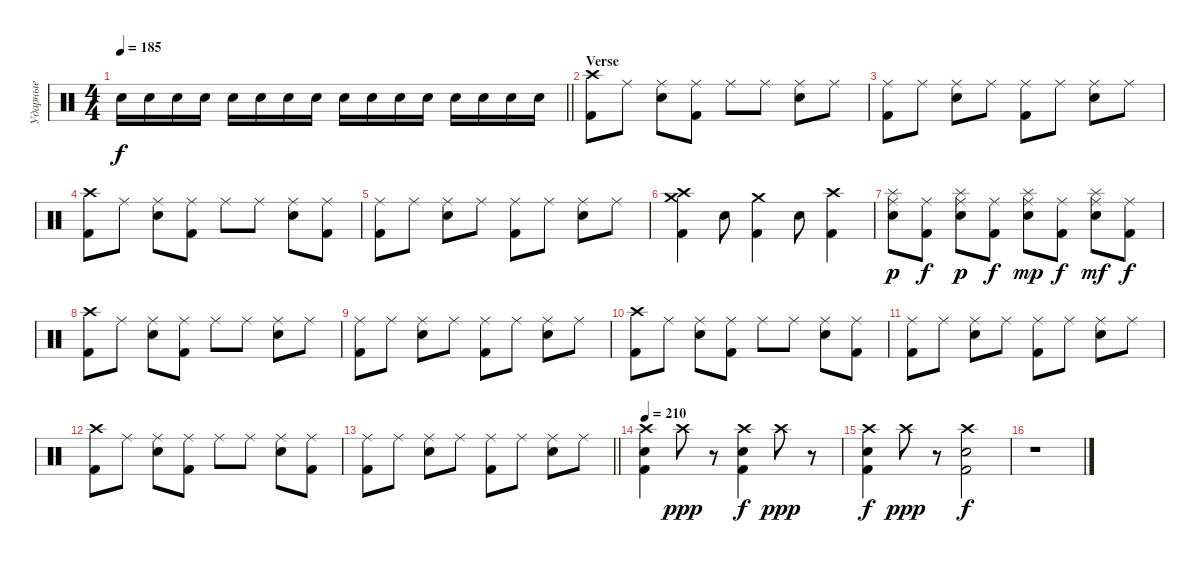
\track ("Ударные" "Ударные") {instrument percussion}
\staff {score}
\articulation defaults
\ts (4 4)
\tempo 185
\clef neutral
\barLineRight lightlight
\ks c "Electric Snare (hit)".16{dy f} "Electric Snare (hit)".16 "Electric Snare (hit)".16 "Electric Snare (hit)".16 "Electric Snare (hit)".16 "Electric Snare (hit)".16 "Electric Snare (hit)".16 "Electric Snare (hit)".16 "Electric Snare (hit)".16 "Electric Snare (hit)".16 "Electric Snare (hit)".16 "Electric Snare (hit)".16 "Electric Snare (hit)".16 "Electric Snare (hit)".16 "Electric Snare (hit)".16 "Electric Snare (hit)".16
|
\section ("" "Verse")
("Kick (hit) 2" "Crash high (hit)").8 "Ride (middle)".8 ("Ride (middle)" "Electric Snare (hit)").8 ("Ride (middle)" "Kick (hit) 2").8 "Ride (middle)".8 "Ride (middle)".8 ("Ride (middle)" "Electric Snare (hit)").8 "Ride (middle)".8 |
("Ride (middle)" "Kick (hit) 2").8 "Ride (middle)".8 ("Ride (middle)" "Electric Snare (hit)").8 "Ride (middle)".8 ("Ride (middle)" "Kick (hit) 2").8 "Ride (middle)".8 ("Ride (middle)" "Electric Snare (hit)").8 "Ride (middle)".8 |
("Kick (hit) 2" "Crash high (hit)").8 "Ride (middle)".8 ("Ride (middle)" "Electric Snare (hit)").8 ("Ride (middle)" "Kick (hit) 2").8 "Ride (middle)".8 "Ride (middle)".8 ("Ride (middle)" "Electric Snare (hit)").8 ("Ride (middle)" "Kick (hit) 2").8 |
("Ride (middle)" "Kick (hit) 2").8 "Ride (middle)".8 ("Ride (middle)" "Electric Snare (hit)").8 "Ride (middle)".8 ("Ride (middle)" "Kick (hit) 2").8 "Ride (middle)".8 ("Ride (middle)" "Electric Snare (hit)").8 "Ride (middle)".8 |
("Crash high (hit)" "Crash medium (hit)" "Kick (hit) 2").4 "Electric Snare (hit)".8 ("Crash medium (hit)" "Kick (hit) 2").4 "Electric Snare (hit)".8 ("Crash high (hit)" "Kick (hit) 2").4 |
("Electric Snare (hit)" "Ride (middle)" "Splash (hit)").8{dy p} ("Kick (hit) 2" "Ride (middle)").8{dy f} ("Electric Snare (hit)" "Ride (middle)" "Splash (hit)").8{dy p} ("Kick (hit) 2" "Ride (middle)").8{dy f} ("Electric Snare (hit)" "Ride (middle)" "Splash (hit)").8{dy mp} ("Kick (hit) 2" "Ride (middle)").8{dy f} ("Electric Snare (hit)" "Ride (middle)" "Splash (hit)").8{dy mf} ("Kick (hit) 2" "Ride (middle)").8{dy f} |
("Kick (hit) 2" "Crash high (hit)").8 "Ride (middle)".8 ("Ride (middle)" "Electric Snare (hit)").8 ("Ride (middle)" "Kick (hit) 2").8 "Ride (middle)".8 "Ride (middle)".8 ("Ride (middle)" "Electric Snare (hit)").8 "Ride (middle)".8 |
("Ride (middle)" "Kick (hit) 2").8 "Ride (middle)".8 ("Ride (middle)" "Electric Snare (hit)").8 "Ride (middle)".8 ("Ride (middle)" "Kick (hit) 2").8 "Ride (middle)".8 ("Ride (middle)" "Electric Snare (hit)").8 "Ride (middle)".8 |
("Kick (hit) 2" "Crash high (hit)").8 "Ride (middle)".8 ("Ride (middle)" "Electric Snare (hit)").8 ("Ride (middle)" "Kick (hit) 2").8 "Ride (middle)".8 "Ride (middle)".8 ("Ride (middle)" "Electric Snare (hit)").8 ("Ride (middle)" "Kick (hit) 2").8 |
("Ride (middle)" "Kick (hit) 2").8 "Ride (middle)".8 ("Ride (middle)" "Electric Snare (hit)").8 "Ride (middle)".8 ("Ride (middle)" "Kick (hit) 2").8 "Ride (middle)".8 ("Ride (middle)" "Electric Snare (hit)").8 "Ride (middle)".8 |
("Kick (hit) 2" "Crash high (hit)").8 "Ride (middle)".8 ("Ride (middle)" "Electric Snare (hit)").8 ("Ride (middle)" "Kick (hit) 2").8 "Ride (middle)".8 "Ride (middle)".8 ("Ride (middle)" "Electric Snare (hit)").8 ("Ride (middle)" "Kick (hit) 2").8 |
\barLineRight lightlight
("Ride (middle)" "Kick (hit) 2").8 "Ride (middle)".8 ("Ride (middle)" "Electric Snare (hit)").8 "Ride (middle)".8 ("Ride (middle)" "Kick (hit) 2").8 "Ride (middle)".8 ("Ride (middle)" "Electric Snare (hit)").8 "Ride (middle)".8 |
\tempo 210
("Kick (hit) 2" "Electric Snare (hit)" "Crash high (hit)").4{volume 12} "Crash high (hit)".8{dy ppp volume 0} r.8 ("Kick (hit) 2" "Electric Snare (hit)" "Crash high (hit)").4{dy f volume 12} "Crash high (hit)".8{dy ppp volume 0} r.8 |
("Kick (hit) 2" "Electric Snare (hit)" "Crash high (hit)").4{dy f volume 12} "Crash high (hit)".8{dy ppp volume 0} r.8 ("Kick (hit) 2" "Electric Snare (hit)" "Crash high (hit)").2{dy f volume 12} |
r.1
